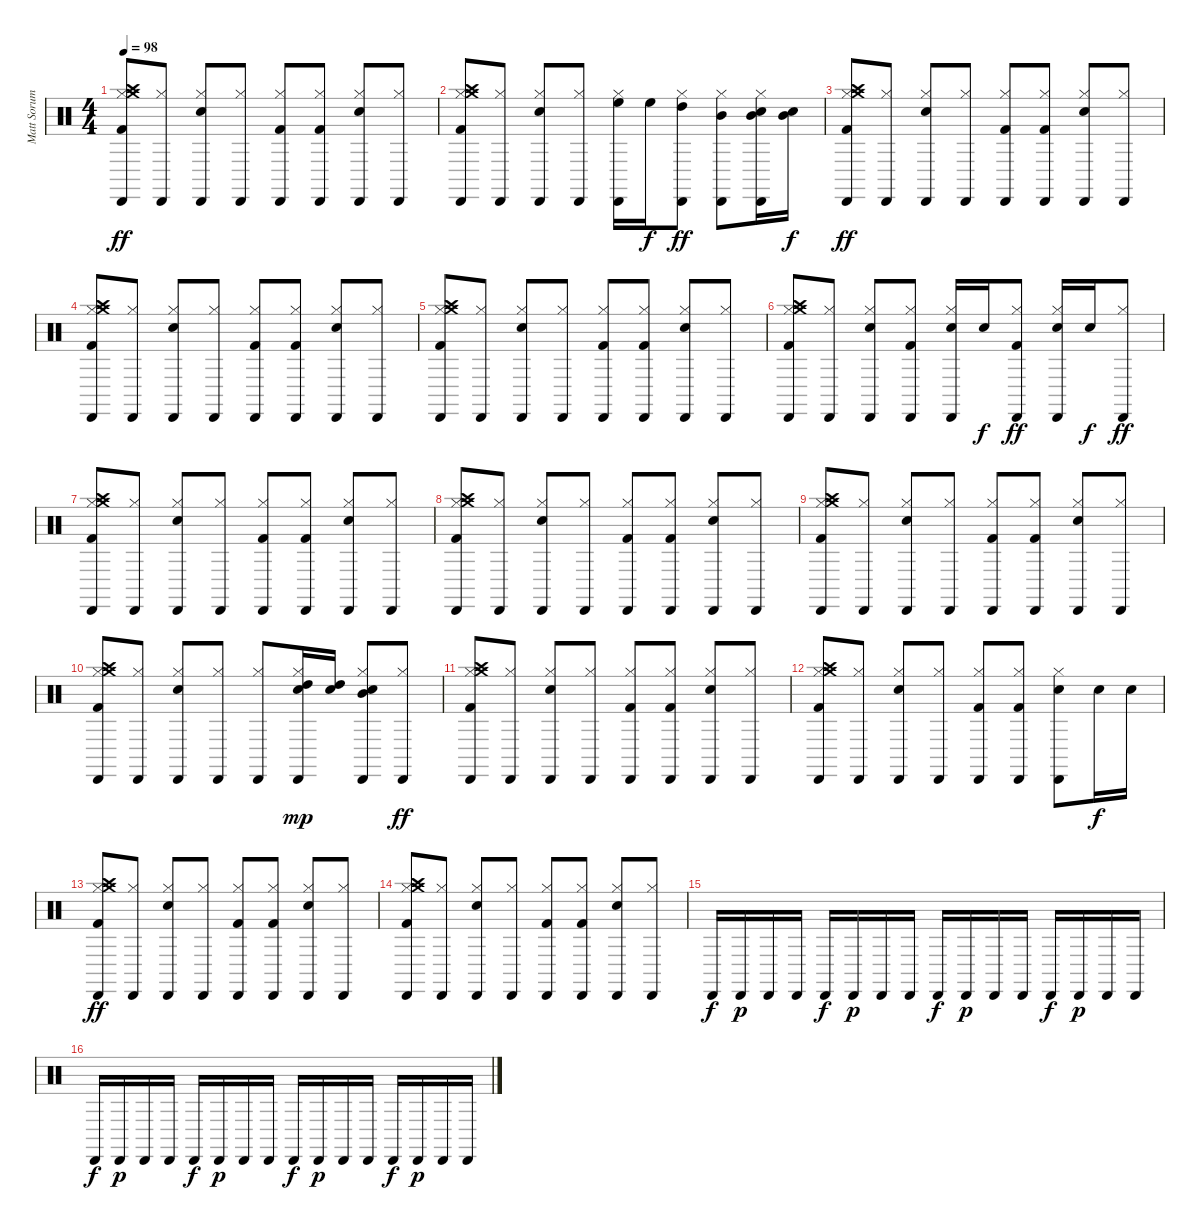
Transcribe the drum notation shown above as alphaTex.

\track ("Matt Sorum" "Matt Sorum") {instrument percussion}
\staff {score}
\articulation defaults
\ts (4 4)
\tempo 98
\clef neutral
\ks c
("Kick (hit) 2" "Hi-Hat (closed)" "Cabasa (hit)" "Crash medium (hit)" "Crash high (hit)").8{dy ff} ("Hi-Hat (closed)" "Cabasa (hit)").8 ("Snare (hit) 2" "Hi-Hat (closed)" "Cabasa (hit)").8 ("Hi-Hat (closed)" "Cabasa (hit)").8 ("Kick (hit) 2" "Hi-Hat (closed)" "Cabasa (hit)").8 ("Kick (hit) 2" "Hi-Hat (closed)" "Cabasa (hit)").8 ("Snare (hit) 2" "Hi-Hat (closed)" "Cabasa (hit)").8 ("Hi-Hat (closed)" "Cabasa (hit)").8 |
("Kick (hit) 2" "Hi-Hat (closed)" "Cabasa (hit)" "Crash medium (hit)" "Crash high (hit)").8 ("Hi-Hat (closed)" "Cabasa (hit)").8 ("Snare (hit) 2" "Hi-Hat (closed)" "Cabasa (hit)").8 ("Hi-Hat (closed)" "Cabasa (hit)").8 ("High Floor Tom (hit)" "Hi-Hat (closed)" "Cabasa (hit)").16 "High Floor Tom (hit)".16{dy f} ("High Tom (hit)" "Hi-Hat (closed)" "Cabasa (hit)").8{dy ff} ("Mid Tom (hit)" "Hi-Hat (closed)" "Cabasa (hit)").8 ("Snare (hit) 2" "Mid Tom (hit)" "Hi-Hat (closed)" "Cabasa (hit)").16 ("Snare (hit) 2" "Mid Tom (hit)").16{dy f} |
("Kick (hit) 2" "Hi-Hat (closed)" "Cabasa (hit)" "Crash medium (hit)" "Crash high (hit)").8{dy ff} ("Hi-Hat (closed)" "Cabasa (hit)").8 ("Snare (hit) 2" "Hi-Hat (closed)" "Cabasa (hit)").8 ("Hi-Hat (closed)" "Cabasa (hit)").8 ("Kick (hit) 2" "Hi-Hat (closed)" "Cabasa (hit)").8 ("Kick (hit) 2" "Hi-Hat (closed)" "Cabasa (hit)").8 ("Snare (hit) 2" "Hi-Hat (closed)" "Cabasa (hit)").8 ("Hi-Hat (closed)" "Cabasa (hit)").8 |
("Kick (hit) 2" "Hi-Hat (closed)" "Cabasa (hit)" "Crash medium (hit)" "Crash high (hit)").8 ("Hi-Hat (closed)" "Cabasa (hit)").8 ("Snare (hit) 2" "Hi-Hat (closed)" "Cabasa (hit)").8 ("Hi-Hat (closed)" "Cabasa (hit)").8 ("Kick (hit) 2" "Hi-Hat (closed)" "Cabasa (hit)").8 ("Kick (hit) 2" "Hi-Hat (closed)" "Cabasa (hit)").8 ("Snare (hit) 2" "Hi-Hat (closed)" "Cabasa (hit)").8 ("Hi-Hat (closed)" "Cabasa (hit)").8 |
("Kick (hit) 2" "Hi-Hat (closed)" "Cabasa (hit)" "Crash medium (hit)" "Crash high (hit)").8 ("Hi-Hat (closed)" "Cabasa (hit)").8 ("Snare (hit) 2" "Hi-Hat (closed)" "Cabasa (hit)").8 ("Hi-Hat (closed)" "Cabasa (hit)").8 ("Kick (hit) 2" "Hi-Hat (closed)" "Cabasa (hit)").8 ("Kick (hit) 2" "Hi-Hat (closed)" "Cabasa (hit)").8 ("Snare (hit) 2" "Hi-Hat (closed)" "Cabasa (hit)").8 ("Hi-Hat (closed)" "Cabasa (hit)").8 |
("Kick (hit) 2" "Hi-Hat (closed)" "Cabasa (hit)" "Crash medium (hit)" "Crash high (hit)").8 ("Hi-Hat (closed)" "Cabasa (hit)").8 ("Snare (hit) 2" "Hi-Hat (closed)" "Cabasa (hit)").8 ("Kick (hit) 2" "Hi-Hat (closed)" "Cabasa (hit)").8 ("Snare (hit) 2" "Hi-Hat (closed)" "Cabasa (hit)").16 "Snare (hit) 2".16{dy f} ("Kick (hit) 2" "Hi-Hat (closed)" "Cabasa (hit)").8{dy ff} ("Snare (hit) 2" "Hi-Hat (closed)" "Cabasa (hit)").16 "Snare (hit) 2".16{dy f} ("Hi-Hat (closed)" "Cabasa (hit)").8{dy ff} |
("Kick (hit) 2" "Hi-Hat (closed)" "Cabasa (hit)" "Crash medium (hit)" "Crash high (hit)").8{volume 16} ("Hi-Hat (closed)" "Cabasa (hit)").8 ("Snare (hit) 2" "Hi-Hat (closed)" "Cabasa (hit)").8 ("Hi-Hat (closed)" "Cabasa (hit)").8 ("Kick (hit) 2" "Hi-Hat (closed)" "Cabasa (hit)").8 ("Kick (hit) 2" "Hi-Hat (closed)" "Cabasa (hit)").8 ("Snare (hit) 2" "Hi-Hat (closed)" "Cabasa (hit)").8 ("Hi-Hat (closed)" "Cabasa (hit)").8 |
("Kick (hit) 2" "Hi-Hat (closed)" "Cabasa (hit)" "Crash medium (hit)" "Crash high (hit)").8 ("Hi-Hat (closed)" "Cabasa (hit)").8 ("Snare (hit) 2" "Hi-Hat (closed)" "Cabasa (hit)").8 ("Hi-Hat (closed)" "Cabasa (hit)").8 ("Kick (hit) 2" "Hi-Hat (closed)" "Cabasa (hit)").8 ("Kick (hit) 2" "Hi-Hat (closed)" "Cabasa (hit)").8 ("Snare (hit) 2" "Hi-Hat (closed)" "Cabasa (hit)").8 ("Hi-Hat (closed)" "Cabasa (hit)").8 |
("Kick (hit) 2" "Hi-Hat (closed)" "Cabasa (hit)" "Crash medium (hit)" "Crash high (hit)").8 ("Hi-Hat (closed)" "Cabasa (hit)").8 ("Snare (hit) 2" "Hi-Hat (closed)" "Cabasa (hit)").8 ("Hi-Hat (closed)" "Cabasa (hit)").8 ("Kick (hit) 2" "Hi-Hat (closed)" "Cabasa (hit)").8 ("Kick (hit) 2" "Hi-Hat (closed)" "Cabasa (hit)").8 ("Snare (hit) 2" "Hi-Hat (closed)" "Cabasa (hit)").8 ("Hi-Hat (closed)" "Cabasa (hit)").8 |
("Kick (hit) 2" "Hi-Hat (closed)" "Cabasa (hit)" "Crash medium (hit)" "Crash high (hit)").8 ("Hi-Hat (closed)" "Cabasa (hit)").8 ("Snare (hit) 2" "Hi-Hat (closed)" "Cabasa (hit)").8 ("Hi-Hat (closed)" "Cabasa (hit)").8 ("Hi-Hat (closed)" "Cabasa (hit)").8 ("High Tom (hit)" "Hi-Hat (closed)" "Cabasa (hit)" "Snare (hit) 2").16{dy mp} ("High Tom (hit)" "Snare (hit) 2").16 ("Mid Tom (hit)" "Hi-Hat (closed)" "Cabasa (hit)" "Snare (hit) 2").8 ("Hi-Hat (closed)" "Cabasa (hit)").8{dy ff} |
("Kick (hit) 2" "Hi-Hat (closed)" "Cabasa (hit)" "Crash medium (hit)" "Crash high (hit)").8 ("Hi-Hat (closed)" "Cabasa (hit)").8 ("Snare (hit) 2" "Hi-Hat (closed)" "Cabasa (hit)").8 ("Hi-Hat (closed)" "Cabasa (hit)").8 ("Kick (hit) 2" "Hi-Hat (closed)" "Cabasa (hit)").8 ("Kick (hit) 2" "Hi-Hat (closed)" "Cabasa (hit)").8 ("Snare (hit) 2" "Hi-Hat (closed)" "Cabasa (hit)").8 ("Hi-Hat (closed)" "Cabasa (hit)").8 |
("Kick (hit) 2" "Hi-Hat (closed)" "Cabasa (hit)" "Crash medium (hit)" "Crash high (hit)").8 ("Hi-Hat (closed)" "Cabasa (hit)").8 ("Snare (hit) 2" "Hi-Hat (closed)" "Cabasa (hit)").8 ("Hi-Hat (closed)" "Cabasa (hit)").8 ("Kick (hit) 2" "Hi-Hat (closed)" "Cabasa (hit)").8 ("Kick (hit) 2" "Hi-Hat (closed)" "Cabasa (hit)").8 ("Snare (hit) 2" "Hi-Hat (closed)" "Cabasa (hit)").8 "Snare (hit) 2".16{dy f} "Snare (hit) 2".16 |
("Kick (hit) 2" "Hi-Hat (closed)" "Cabasa (hit)" "Crash medium (hit)" "Crash high (hit)").8{dy ff} ("Hi-Hat (closed)" "Cabasa (hit)").8 ("Snare (hit) 2" "Hi-Hat (closed)" "Cabasa (hit)").8 ("Hi-Hat (closed)" "Cabasa (hit)").8 ("Kick (hit) 2" "Hi-Hat (closed)" "Cabasa (hit)").8 ("Kick (hit) 2" "Hi-Hat (closed)" "Cabasa (hit)").8 ("Snare (hit) 2" "Hi-Hat (closed)" "Cabasa (hit)").8 ("Hi-Hat (closed)" "Cabasa (hit)").8 |
("Kick (hit) 2" "Hi-Hat (closed)" "Cabasa (hit)" "Crash medium (hit)" "Crash high (hit)").8 ("Hi-Hat (closed)" "Cabasa (hit)").8 ("Snare (hit) 2" "Hi-Hat (closed)" "Cabasa (hit)").8 ("Hi-Hat (closed)" "Cabasa (hit)").8 ("Kick (hit) 2" "Hi-Hat (closed)" "Cabasa (hit)").8 ("Kick (hit) 2" "Hi-Hat (closed)" "Cabasa (hit)").8 ("Snare (hit) 2" "Hi-Hat (closed)" "Cabasa (hit)").8 ("Hi-Hat (closed)" "Cabasa (hit)").8 |
"Cabasa (hit)".16{dy f volume 6} "Cabasa (hit)".16{dy p} "Cabasa (hit)".16 "Cabasa (hit)".16 "Cabasa (hit)".16{dy f} "Cabasa (hit)".16{dy p} "Cabasa (hit)".16 "Cabasa (hit)".16 "Cabasa (hit)".16{dy f} "Cabasa (hit)".16{dy p} "Cabasa (hit)".16 "Cabasa (hit)".16 "Cabasa (hit)".16{dy f} "Cabasa (hit)".16{dy p} "Cabasa (hit)".16 "Cabasa (hit)".16 |
"Cabasa (hit)".16{dy f volume 6} "Cabasa (hit)".16{dy p} "Cabasa (hit)".16 "Cabasa (hit)".16 "Cabasa (hit)".16{dy f} "Cabasa (hit)".16{dy p} "Cabasa (hit)".16 "Cabasa (hit)".16 "Cabasa (hit)".16{dy f} "Cabasa (hit)".16{dy p} "Cabasa (hit)".16 "Cabasa (hit)".16 "Cabasa (hit)".16{dy f} "Cabasa (hit)".16{dy p} "Cabasa (hit)".16 "Cabasa (hit)".16
